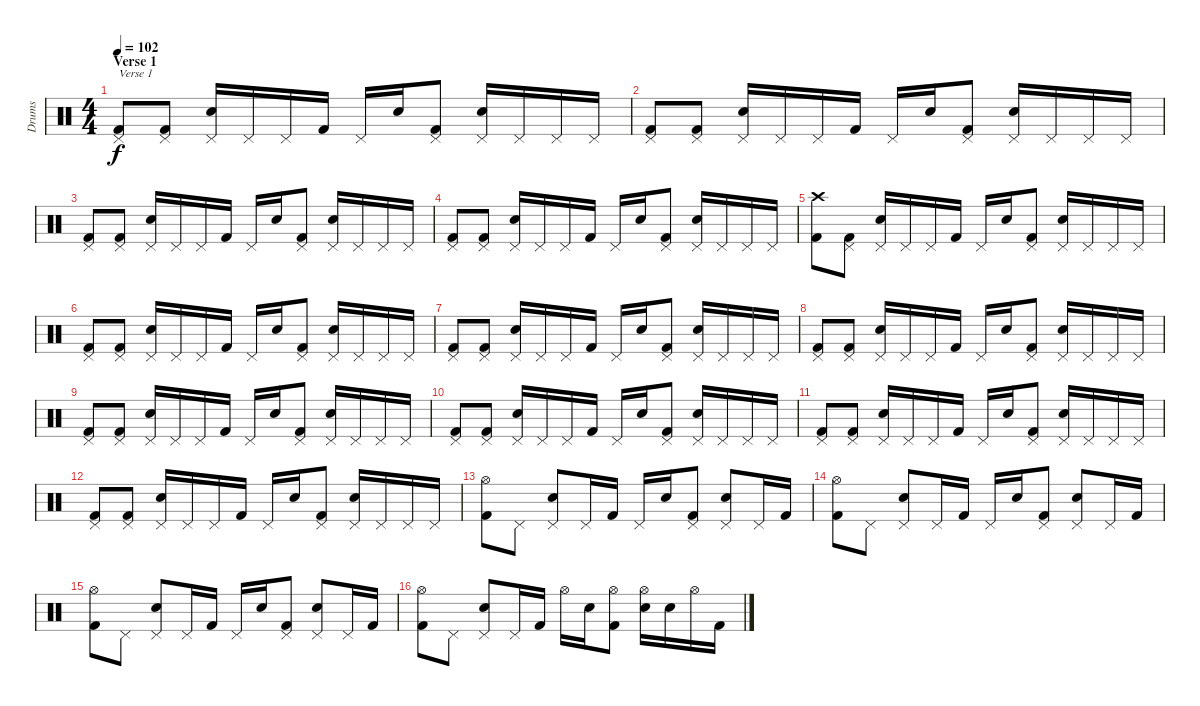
\track ("Drums" "Drums") {instrument percussion}
\staff {score}
\articulation defaults
\ts (4 4)
\section ("" "Verse 1")
\tempo 102
\clef neutral
\ks c
("Pedal Hi-Hat (hit)" "Kick (hit) 2").8{txt "Verse 1" dy f} ("Pedal Hi-Hat (hit)" "Kick (hit) 2").8 ("Pedal Hi-Hat (hit)" "Electric Snare (hit)").16 "Pedal Hi-Hat (hit)".16 "Pedal Hi-Hat (hit)".16 "Kick (hit) 2".16 "Pedal Hi-Hat (hit)".16 "Electric Snare (hit)".16 ("Pedal Hi-Hat (hit)" "Kick (hit) 2").8 ("Pedal Hi-Hat (hit)" "Electric Snare (hit)").16 "Pedal Hi-Hat (hit)".16 "Pedal Hi-Hat (hit)".16 "Pedal Hi-Hat (hit)".16 |
("Pedal Hi-Hat (hit)" "Kick (hit) 2").8 ("Pedal Hi-Hat (hit)" "Kick (hit) 2").8 ("Pedal Hi-Hat (hit)" "Electric Snare (hit)").16 "Pedal Hi-Hat (hit)".16 "Pedal Hi-Hat (hit)".16 "Kick (hit) 2".16 "Pedal Hi-Hat (hit)".16 "Electric Snare (hit)".16 ("Pedal Hi-Hat (hit)" "Kick (hit) 2").8 ("Pedal Hi-Hat (hit)" "Electric Snare (hit)").16 "Pedal Hi-Hat (hit)".16 "Pedal Hi-Hat (hit)".16 "Pedal Hi-Hat (hit)".16 |
("Pedal Hi-Hat (hit)" "Kick (hit) 2").8 ("Pedal Hi-Hat (hit)" "Kick (hit) 2").8 ("Pedal Hi-Hat (hit)" "Electric Snare (hit)").16 "Pedal Hi-Hat (hit)".16 "Pedal Hi-Hat (hit)".16 "Kick (hit) 2".16 "Pedal Hi-Hat (hit)".16 "Electric Snare (hit)".16 ("Pedal Hi-Hat (hit)" "Kick (hit) 2").8 ("Pedal Hi-Hat (hit)" "Electric Snare (hit)").16 "Pedal Hi-Hat (hit)".16 "Pedal Hi-Hat (hit)".16 "Pedal Hi-Hat (hit)".16 |
("Pedal Hi-Hat (hit)" "Kick (hit) 2").8 ("Pedal Hi-Hat (hit)" "Kick (hit) 2").8 ("Pedal Hi-Hat (hit)" "Electric Snare (hit)").16 "Pedal Hi-Hat (hit)".16 "Pedal Hi-Hat (hit)".16 "Kick (hit) 2".16 "Pedal Hi-Hat (hit)".16 "Electric Snare (hit)".16 ("Pedal Hi-Hat (hit)" "Kick (hit) 2").8 ("Pedal Hi-Hat (hit)" "Electric Snare (hit)").16 "Pedal Hi-Hat (hit)".16 "Pedal Hi-Hat (hit)".16 "Pedal Hi-Hat (hit)".16 |
("Crash high (hit)" "Kick (hit) 2").8 ("Pedal Hi-Hat (hit)" "Kick (hit) 2").8 ("Pedal Hi-Hat (hit)" "Electric Snare (hit)").16 "Pedal Hi-Hat (hit)".16 "Pedal Hi-Hat (hit)".16 "Kick (hit) 2".16 "Pedal Hi-Hat (hit)".16 "Electric Snare (hit)".16 ("Pedal Hi-Hat (hit)" "Kick (hit) 2").8 ("Pedal Hi-Hat (hit)" "Electric Snare (hit)").16 "Pedal Hi-Hat (hit)".16 "Pedal Hi-Hat (hit)".16 "Pedal Hi-Hat (hit)".16 |
("Pedal Hi-Hat (hit)" "Kick (hit) 2").8 ("Pedal Hi-Hat (hit)" "Kick (hit) 2").8 ("Pedal Hi-Hat (hit)" "Electric Snare (hit)").16 "Pedal Hi-Hat (hit)".16 "Pedal Hi-Hat (hit)".16 "Kick (hit) 2".16 "Pedal Hi-Hat (hit)".16 "Electric Snare (hit)".16 ("Pedal Hi-Hat (hit)" "Kick (hit) 2").8 ("Pedal Hi-Hat (hit)" "Electric Snare (hit)").16 "Pedal Hi-Hat (hit)".16 "Pedal Hi-Hat (hit)".16 "Pedal Hi-Hat (hit)".16 |
("Pedal Hi-Hat (hit)" "Kick (hit) 2").8 ("Pedal Hi-Hat (hit)" "Kick (hit) 2").8 ("Pedal Hi-Hat (hit)" "Electric Snare (hit)").16 "Pedal Hi-Hat (hit)".16 "Pedal Hi-Hat (hit)".16 "Kick (hit) 2".16 "Pedal Hi-Hat (hit)".16 "Electric Snare (hit)".16 ("Pedal Hi-Hat (hit)" "Kick (hit) 2").8 ("Pedal Hi-Hat (hit)" "Electric Snare (hit)").16 "Pedal Hi-Hat (hit)".16 "Pedal Hi-Hat (hit)".16 "Pedal Hi-Hat (hit)".16 |
("Pedal Hi-Hat (hit)" "Kick (hit) 2").8 ("Pedal Hi-Hat (hit)" "Kick (hit) 2").8 ("Pedal Hi-Hat (hit)" "Electric Snare (hit)").16 "Pedal Hi-Hat (hit)".16 "Pedal Hi-Hat (hit)".16 "Kick (hit) 2".16 "Pedal Hi-Hat (hit)".16 "Electric Snare (hit)".16 ("Pedal Hi-Hat (hit)" "Kick (hit) 2").8 ("Pedal Hi-Hat (hit)" "Electric Snare (hit)").16 "Pedal Hi-Hat (hit)".16 "Pedal Hi-Hat (hit)".16 "Pedal Hi-Hat (hit)".16 |
("Pedal Hi-Hat (hit)" "Kick (hit) 2").8 ("Pedal Hi-Hat (hit)" "Kick (hit) 2").8 ("Pedal Hi-Hat (hit)" "Electric Snare (hit)").16 "Pedal Hi-Hat (hit)".16 "Pedal Hi-Hat (hit)".16 "Kick (hit) 2".16 "Pedal Hi-Hat (hit)".16 "Electric Snare (hit)".16 ("Pedal Hi-Hat (hit)" "Kick (hit) 2").8 ("Pedal Hi-Hat (hit)" "Electric Snare (hit)").16 "Pedal Hi-Hat (hit)".16 "Pedal Hi-Hat (hit)".16 "Pedal Hi-Hat (hit)".16 |
("Pedal Hi-Hat (hit)" "Kick (hit) 2").8 ("Pedal Hi-Hat (hit)" "Kick (hit) 2").8 ("Pedal Hi-Hat (hit)" "Electric Snare (hit)").16 "Pedal Hi-Hat (hit)".16 "Pedal Hi-Hat (hit)".16 "Kick (hit) 2".16 "Pedal Hi-Hat (hit)".16 "Electric Snare (hit)".16 ("Pedal Hi-Hat (hit)" "Kick (hit) 2").8 ("Pedal Hi-Hat (hit)" "Electric Snare (hit)").16 "Pedal Hi-Hat (hit)".16 "Pedal Hi-Hat (hit)".16 "Pedal Hi-Hat (hit)".16 |
("Pedal Hi-Hat (hit)" "Kick (hit) 2").8 ("Pedal Hi-Hat (hit)" "Kick (hit) 2").8 ("Pedal Hi-Hat (hit)" "Electric Snare (hit)").16 "Pedal Hi-Hat (hit)".16 "Pedal Hi-Hat (hit)".16 "Kick (hit) 2".16 "Pedal Hi-Hat (hit)".16 "Electric Snare (hit)".16 ("Pedal Hi-Hat (hit)" "Kick (hit) 2").8 ("Pedal Hi-Hat (hit)" "Electric Snare (hit)").16 "Pedal Hi-Hat (hit)".16 "Pedal Hi-Hat (hit)".16 "Pedal Hi-Hat (hit)".16 |
("Pedal Hi-Hat (hit)" "Kick (hit) 2").8 ("Pedal Hi-Hat (hit)" "Kick (hit) 2").8 ("Pedal Hi-Hat (hit)" "Electric Snare (hit)").16 "Pedal Hi-Hat (hit)".16 "Pedal Hi-Hat (hit)".16 "Kick (hit) 2".16 "Pedal Hi-Hat (hit)".16 "Electric Snare (hit)".16 ("Pedal Hi-Hat (hit)" "Kick (hit) 2").8 ("Pedal Hi-Hat (hit)" "Electric Snare (hit)").16 "Pedal Hi-Hat (hit)".16 "Pedal Hi-Hat (hit)".16 "Pedal Hi-Hat (hit)".16 |
("Hi-Hat (open)" "Kick (hit) 2").8 "Pedal Hi-Hat (hit)".8 ("Pedal Hi-Hat (hit)" "Electric Snare (hit)").8 "Pedal Hi-Hat (hit)".16 "Kick (hit) 2".16 "Pedal Hi-Hat (hit)".16 "Electric Snare (hit)".16 ("Pedal Hi-Hat (hit)" "Kick (hit) 2").8 ("Pedal Hi-Hat (hit)" "Electric Snare (hit)").8 "Pedal Hi-Hat (hit)".16 "Kick (hit) 2".16 |
("Hi-Hat (open)" "Kick (hit) 2").8 "Pedal Hi-Hat (hit)".8 ("Pedal Hi-Hat (hit)" "Electric Snare (hit)").8 "Pedal Hi-Hat (hit)".16 "Kick (hit) 2".16 "Pedal Hi-Hat (hit)".16 "Electric Snare (hit)".16 ("Pedal Hi-Hat (hit)" "Kick (hit) 2").8 ("Pedal Hi-Hat (hit)" "Electric Snare (hit)").8 "Pedal Hi-Hat (hit)".16 "Kick (hit) 2".16 |
("Hi-Hat (open)" "Kick (hit) 2").8 "Pedal Hi-Hat (hit)".8 ("Pedal Hi-Hat (hit)" "Electric Snare (hit)").8 "Pedal Hi-Hat (hit)".16 "Kick (hit) 2".16 "Pedal Hi-Hat (hit)".16 "Electric Snare (hit)".16 ("Pedal Hi-Hat (hit)" "Kick (hit) 2").8 ("Pedal Hi-Hat (hit)" "Electric Snare (hit)").8 "Pedal Hi-Hat (hit)".16 "Kick (hit) 2".16 |
("Hi-Hat (open)" "Kick (hit) 2").8 "Pedal Hi-Hat (hit)".8 ("Pedal Hi-Hat (hit)" "Electric Snare (hit)").8 "Pedal Hi-Hat (hit)".16 "Kick (hit) 2".16 "Hi-Hat (open)".16 "Electric Snare (hit)".16 ("Hi-Hat (open)" "Kick (hit) 2").8 ("Hi-Hat (open)" "Electric Snare (hit)").16 "Electric Snare (hit)".16 "Hi-Hat (open)".16 "Kick (hit) 2".16
